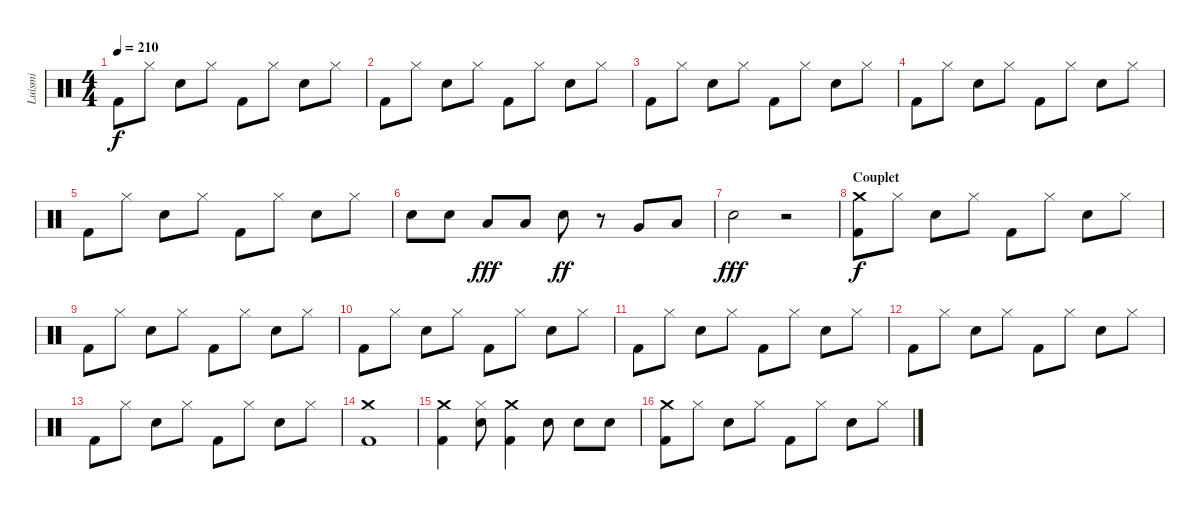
\track ("Luismi" "Luismi") {instrument percussion}
\staff {score}
\articulation defaults
\ts (4 4)
\tempo 210
\clef neutral
\ks c "Kick (hit) 2".8{dy f} "Hi-Hat (closed)".8 "Snare (hit) 2".8 "Hi-Hat (closed)".8 "Kick (hit) 2".8 "Hi-Hat (closed)".8 "Snare (hit) 2".8 "Hi-Hat (closed)".8
|
"Kick (hit) 2".8 "Hi-Hat (closed)".8 "Snare (hit) 2".8 "Hi-Hat (closed)".8 "Kick (hit) 2".8 "Hi-Hat (closed)".8 "Snare (hit) 2".8 "Hi-Hat (closed)".8 |
"Kick (hit) 2".8 "Hi-Hat (closed)".8 "Snare (hit) 2".8 "Hi-Hat (closed)".8 "Kick (hit) 2".8 "Hi-Hat (closed)".8 "Snare (hit) 2".8 "Hi-Hat (closed)".8 |
"Kick (hit) 2".8 "Hi-Hat (closed)".8 "Snare (hit) 2".8 "Hi-Hat (closed)".8 "Kick (hit) 2".8 "Hi-Hat (closed)".8 "Snare (hit) 2".8 "Hi-Hat (closed)".8 |
"Kick (hit) 2".8 "Hi-Hat (closed)".8 "Snare (hit) 2".8 "Hi-Hat (closed)".8 "Kick (hit) 2".8 "Hi-Hat (closed)".8 "Snare (hit) 2".8 "Hi-Hat (closed)".8 |
"Snare (hit) 2".8 "Snare (hit) 2".8 "Low Tom (hit)".8{dy fff} "Low Tom (hit)".8 "Snare (hit) 2".8{dy ff} r.8 "Very Low Tom (hit)".8 "Low Floor Tom (hit)".8 |
"Snare (hit) 2".2{dy fff} r.2 |
\section ("" "Couplet")
("Crash medium (hit)" "Kick (hit) 2").8{dy f} "Hi-Hat (closed)".8 "Snare (hit) 2".8 "Hi-Hat (closed)".8 "Kick (hit) 2".8 "Hi-Hat (closed)".8 "Snare (hit) 2".8 "Hi-Hat (closed)".8 |
"Kick (hit) 2".8 "Hi-Hat (closed)".8 "Snare (hit) 2".8 "Hi-Hat (closed)".8 "Kick (hit) 2".8 "Hi-Hat (closed)".8 "Snare (hit) 2".8 "Hi-Hat (closed)".8 |
"Kick (hit) 2".8 "Hi-Hat (closed)".8 "Snare (hit) 2".8 "Hi-Hat (closed)".8 "Kick (hit) 2".8 "Hi-Hat (closed)".8 "Snare (hit) 2".8 "Hi-Hat (closed)".8 |
"Kick (hit) 2".8 "Hi-Hat (closed)".8 "Snare (hit) 2".8 "Hi-Hat (closed)".8 "Kick (hit) 2".8 "Hi-Hat (closed)".8 "Snare (hit) 2".8 "Hi-Hat (closed)".8 |
"Kick (hit) 2".8 "Hi-Hat (closed)".8 "Snare (hit) 2".8 "Hi-Hat (closed)".8 "Kick (hit) 2".8 "Hi-Hat (closed)".8 "Snare (hit) 2".8 "Hi-Hat (closed)".8 |
"Kick (hit) 2".8 "Hi-Hat (closed)".8 "Snare (hit) 2".8 "Hi-Hat (closed)".8 "Kick (hit) 2".8 "Hi-Hat (closed)".8 "Snare (hit) 2".8 "Hi-Hat (closed)".8 |
("Crash medium (hit)" "Kick (hit) 2").1 |
("Crash medium (hit)" "Kick (hit) 2").4 ("Hi-Hat (closed)" "Snare (hit) 2").8 ("Crash medium (hit)" "Kick (hit) 2").4 "Snare (hit) 2".8 "Snare (hit) 2".8 "Snare (hit) 2".8 |
("Crash medium (hit)" "Kick (hit) 2").8 "Hi-Hat (closed)".8 "Snare (hit) 2".8 "Hi-Hat (closed)".8 "Kick (hit) 2".8 "Hi-Hat (closed)".8 "Snare (hit) 2".8 "Hi-Hat (closed)".8
